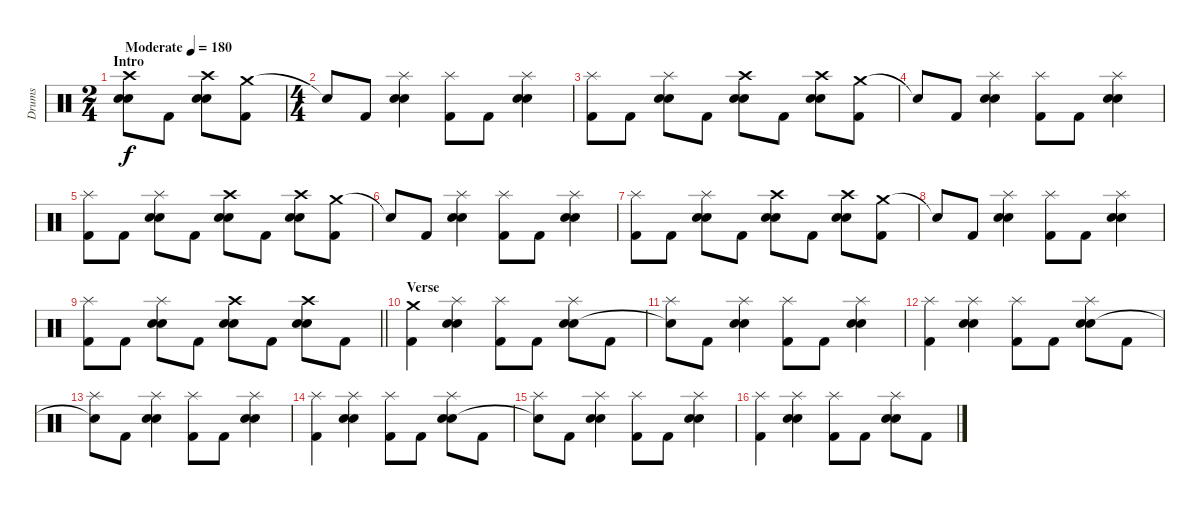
\track ("Drums" "Drums") {instrument percussion}
\staff {score}
\articulation defaults
\ts (2 4)
\section ("" "Intro")
\tempo (180 "Moderate")
\clef neutral
\ks c
("Crash high (hit)" "Electric Snare (hit)" "Snare (hit) 2").8{dy f} "Kick (hit) 2".8 ("Crash high (hit)" "Electric Snare (hit)" "Snare (hit) 2").8 ("Crash medium (hit)" "Kick (hit) 2").8 |
\ts (4 4)
"Snare (hit)"{t}.8 "Kick (hit) 2".8 ("Splash (hit)" "Electric Snare (hit)" "Snare (hit) 2").4 ("Splash (hit)" "Kick (hit) 2").8 "Kick (hit) 2".8 ("Splash (hit)" "Electric Snare (hit)" "Snare (hit) 2").4 |
("Splash (hit)" "Kick (hit) 2").8 "Kick (hit) 2".8 ("Splash (hit)" "Electric Snare (hit)" "Snare (hit) 2").8 "Kick (hit) 2".8 ("Crash high (hit)" "Electric Snare (hit)" "Snare (hit) 2").8 "Kick (hit) 2".8 ("Crash high (hit)" "Electric Snare (hit)" "Snare (hit) 2").8 ("Crash medium (hit)" "Kick (hit) 2").8 |
"Snare (hit)"{t}.8 "Kick (hit) 2".8 ("Splash (hit)" "Electric Snare (hit)" "Snare (hit) 2").4 ("Splash (hit)" "Kick (hit) 2").8 "Kick (hit) 2".8 ("Splash (hit)" "Electric Snare (hit)" "Snare (hit) 2").4 |
("Splash (hit)" "Kick (hit) 2").8 "Kick (hit) 2".8 ("Splash (hit)" "Electric Snare (hit)" "Snare (hit) 2").8 "Kick (hit) 2".8 ("Crash high (hit)" "Electric Snare (hit)" "Snare (hit) 2").8 "Kick (hit) 2".8 ("Crash high (hit)" "Electric Snare (hit)" "Snare (hit) 2").8 ("Crash medium (hit)" "Kick (hit) 2").8 |
"Snare (hit)"{t}.8 "Kick (hit) 2".8 ("Splash (hit)" "Electric Snare (hit)" "Snare (hit) 2").4 ("Splash (hit)" "Kick (hit) 2").8 "Kick (hit) 2".8 ("Splash (hit)" "Electric Snare (hit)" "Snare (hit) 2").4 |
("Splash (hit)" "Kick (hit) 2").8 "Kick (hit) 2".8 ("Splash (hit)" "Electric Snare (hit)" "Snare (hit) 2").8 "Kick (hit) 2".8 ("Crash high (hit)" "Electric Snare (hit)" "Snare (hit) 2").8 "Kick (hit) 2".8 ("Crash high (hit)" "Electric Snare (hit)" "Snare (hit) 2").8 ("Crash medium (hit)" "Kick (hit) 2").8 |
"Snare (hit)"{t}.8 "Kick (hit) 2".8 ("Splash (hit)" "Electric Snare (hit)" "Snare (hit) 2").4 ("Splash (hit)" "Kick (hit) 2").8 "Kick (hit) 2".8 ("Splash (hit)" "Electric Snare (hit)" "Snare (hit) 2").4 |
\barLineRight lightlight
("Splash (hit)" "Kick (hit) 2").8 "Kick (hit) 2".8 ("Splash (hit)" "Electric Snare (hit)" "Snare (hit) 2").8 "Kick (hit) 2".8 ("Crash high (hit)" "Electric Snare (hit)" "Snare (hit) 2").8 "Kick (hit) 2".8 ("Crash high (hit)" "Electric Snare (hit)" "Snare (hit) 2").8 "Kick (hit) 2".8 |
\section ("" "Verse")
("Crash medium (hit)" "Kick (hit) 2").4 ("Splash (hit)" "Electric Snare (hit)" "Snare (hit) 2").4 ("Splash (hit)" "Kick (hit) 2").8 "Kick (hit) 2".8 ("Splash (hit)" "Electric Snare (hit)" "Snare (hit) 2").8 "Kick (hit) 2".8 |
("Splash (hit)" "Snare (hit)"{t}).8 "Kick (hit) 2".8 ("Splash (hit)" "Electric Snare (hit)" "Snare (hit) 2").4 ("Splash (hit)" "Kick (hit) 2").8 "Kick (hit) 2".8 ("Splash (hit)" "Electric Snare (hit)" "Snare (hit) 2").4 |
("Splash (hit)" "Kick (hit) 2").4 ("Splash (hit)" "Electric Snare (hit)" "Snare (hit) 2").4 ("Splash (hit)" "Kick (hit) 2").8 "Kick (hit) 2".8 ("Splash (hit)" "Electric Snare (hit)" "Snare (hit) 2").8 "Kick (hit) 2".8 |
("Splash (hit)" "Snare (hit)"{t}).8 "Kick (hit) 2".8 ("Splash (hit)" "Electric Snare (hit)" "Snare (hit) 2").4 ("Splash (hit)" "Kick (hit) 2").8 "Kick (hit) 2".8 ("Splash (hit)" "Electric Snare (hit)" "Snare (hit) 2").4 |
("Splash (hit)" "Kick (hit) 2").4 ("Splash (hit)" "Electric Snare (hit)" "Snare (hit) 2").4 ("Splash (hit)" "Kick (hit) 2").8 "Kick (hit) 2".8 ("Splash (hit)" "Electric Snare (hit)" "Snare (hit) 2").8 "Kick (hit) 2".8 |
("Splash (hit)" "Snare (hit)"{t}).8 "Kick (hit) 2".8 ("Splash (hit)" "Electric Snare (hit)" "Snare (hit) 2").4 ("Splash (hit)" "Kick (hit) 2").8 "Kick (hit) 2".8 ("Splash (hit)" "Electric Snare (hit)" "Snare (hit) 2").4 |
("Splash (hit)" "Kick (hit) 2").4 ("Splash (hit)" "Electric Snare (hit)" "Snare (hit) 2").4 ("Splash (hit)" "Kick (hit) 2").8 "Kick (hit) 2".8 ("Splash (hit)" "Electric Snare (hit)" "Snare (hit) 2").8 "Kick (hit) 2".8
